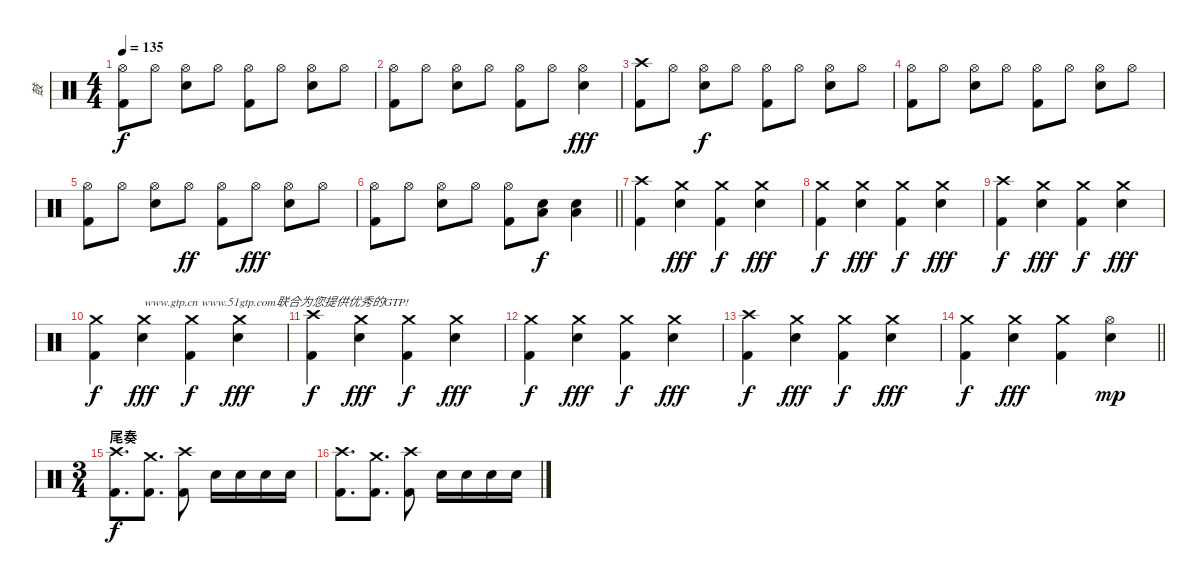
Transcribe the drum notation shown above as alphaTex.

\track ("鼓" "鼓") {instrument percussion}
\staff {score}
\articulation defaults
\ts (4 4)
\tempo 135
\clef neutral
\ks c
("Hi-Hat (open)" "Kick (hit) 2").8{dy f} "Hi-Hat (open)".8 ("Hi-Hat (open)" "Electric Snare (hit)").8 "Hi-Hat (open)".8 ("Hi-Hat (open)" "Kick (hit) 2").8 "Hi-Hat (open)".8 ("Hi-Hat (open)" "Electric Snare (hit)").8 "Hi-Hat (open)".8 |
("Hi-Hat (open)" "Kick (hit) 2").8 "Hi-Hat (open)".8 ("Hi-Hat (open)" "Electric Snare (hit)").8 "Hi-Hat (open)".8 ("Hi-Hat (open)" "Kick (hit) 2").8 "Hi-Hat (open)".8 ("Hi-Hat (open)" "Electric Snare (hit)").4{dy fff} |
("Crash high (hit)" "Kick (hit) 2").8 "Hi-Hat (open)".8 ("Hi-Hat (open)" "Electric Snare (hit)").8{dy f} "Hi-Hat (open)".8 ("Hi-Hat (open)" "Kick (hit) 2").8 "Hi-Hat (open)".8 ("Hi-Hat (open)" "Electric Snare (hit)").8 "Hi-Hat (open)".8 |
("Hi-Hat (open)" "Kick (hit) 2").8 "Hi-Hat (open)".8 ("Hi-Hat (open)" "Electric Snare (hit)").8 "Hi-Hat (open)".8 ("Hi-Hat (open)" "Kick (hit) 2").8 "Hi-Hat (open)".8 ("Hi-Hat (open)" "Electric Snare (hit)").8 "Hi-Hat (open)".8 |
("Hi-Hat (open)" "Kick (hit) 2").8 "Hi-Hat (open)".8 ("Hi-Hat (open)" "Electric Snare (hit)").8 "Hi-Hat (open)".8{dy ff} ("Hi-Hat (open)" "Kick (hit) 2").8 "Hi-Hat (open)".8{dy fff} ("Hi-Hat (open)" "Electric Snare (hit)").8 "Hi-Hat (open)".8 |
\barLineRight lightlight
("Hi-Hat (open)" "Kick (hit) 2").8 "Hi-Hat (open)".8 ("Hi-Hat (open)" "Electric Snare (hit)").8 "Hi-Hat (open)".8 ("Hi-Hat (open)" "Kick (hit) 2").8 ("Electric Snare (hit)" "Low Tom (hit)").8{dy f} ("Electric Snare (hit)" "Low Tom (hit)").4 |
("Crash high (hit)" "Kick (hit) 2").4 ("Crash medium (hit)" "Electric Snare (hit)").4{dy fff} ("Crash medium (hit)" "Kick (hit) 2").4{dy f} ("Crash medium (hit)" "Electric Snare (hit)").4{dy fff} |
("Crash medium (hit)" "Kick (hit) 2").4{dy f} ("Crash medium (hit)" "Electric Snare (hit)").4{dy fff} ("Crash medium (hit)" "Kick (hit) 2").4{dy f} ("Crash medium (hit)" "Electric Snare (hit)").4{dy fff} |
("Crash high (hit)" "Kick (hit) 2").4{dy f} ("Crash medium (hit)" "Electric Snare (hit)").4{dy fff} ("Crash medium (hit)" "Kick (hit) 2").4{dy f} ("Crash medium (hit)" "Electric Snare (hit)").4{dy fff} |
("Crash medium (hit)" "Kick (hit) 2").4{dy f} ("Crash medium (hit)" "Electric Snare (hit)").4{txt "www.gtp.cn www.51gtp.com联合为您提供优秀的GTP!" dy fff} ("Crash medium (hit)" "Kick (hit) 2").4{dy f} ("Crash medium (hit)" "Electric Snare (hit)").4{dy fff} |
("Crash high (hit)" "Kick (hit) 2").4{dy f} ("Crash medium (hit)" "Electric Snare (hit)").4{dy fff} ("Crash medium (hit)" "Kick (hit) 2").4{dy f} ("Crash medium (hit)" "Electric Snare (hit)").4{dy fff} |
("Crash medium (hit)" "Kick (hit) 2").4{dy f} ("Crash medium (hit)" "Electric Snare (hit)").4{dy fff} ("Crash medium (hit)" "Kick (hit) 2").4{dy f} ("Crash medium (hit)" "Electric Snare (hit)").4{dy fff} |
("Crash high (hit)" "Kick (hit) 2").4{dy f} ("Crash medium (hit)" "Electric Snare (hit)").4{dy fff} ("Crash medium (hit)" "Kick (hit) 2").4{dy f} ("Crash medium (hit)" "Electric Snare (hit)").4{dy fff} |
\barLineRight lightlight
("Crash medium (hit)" "Kick (hit) 2").4{dy f} ("Crash medium (hit)" "Electric Snare (hit)").4{dy fff} ("Crash medium (hit)" "Kick (hit) 2").4 ("Hi-Hat (open)" "Electric Snare (hit)").4{dy mp} |
\ts (3 4)
\section ("" "尾奏")
("Crash high (hit)" "Kick (hit) 2").8{d dy f} ("Crash medium (hit)" "Kick (hit) 2").8{d} ("Crash high (hit)" "Kick (hit) 2").8 "Electric Snare (hit)".16 "Electric Snare (hit)".16 "Electric Snare (hit)".16 "Electric Snare (hit)".16 |
("Crash high (hit)" "Kick (hit) 2").8{d} ("Crash medium (hit)" "Kick (hit) 2").8{d} ("Crash high (hit)" "Kick (hit) 2").8 "Electric Snare (hit)".16 "Electric Snare (hit)".16 "Electric Snare (hit)".16 "Electric Snare (hit)".16
